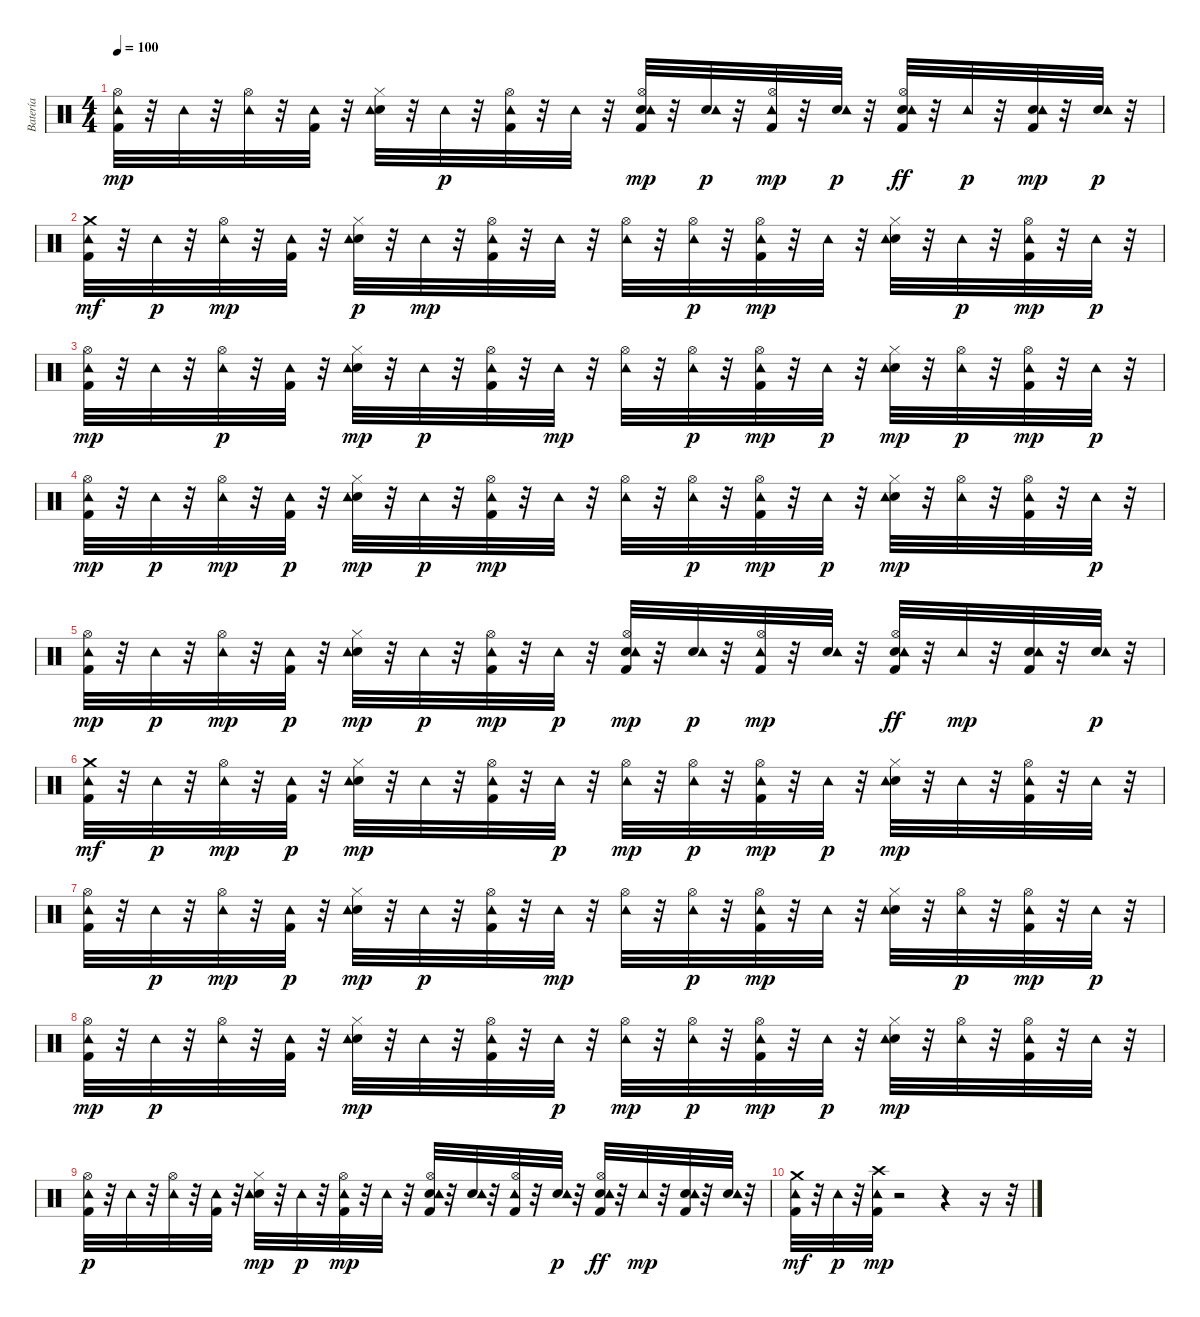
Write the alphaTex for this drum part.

\track ("Batería" "Batería") {instrument percussion}
\staff {score}
\articulation defaults
\ts (4 4)
\tempo 100
\clef neutral
\ks c
("Kick (hit) 2" "Hi-Hat (open)" "Tambourine (hit)").32{dy mp} r.32 "Tambourine (hit)".32 r.32 ("Hi-Hat (open)" "Tambourine (hit)").32 r.32 ("Kick (hit) 2" "Tambourine (hit)").32 r.32 ("Electric Snare (hit)" "Hi-Hat (closed)" "Tambourine (hit)").32 r.32 "Tambourine (hit)".32{dy p} r.32 ("Kick (hit) 2" "Hi-Hat (open)" "Tambourine (hit)").32 r.32 "Tambourine (hit)".32 r.32 ("Kick (hit) 2" "Electric Snare (hit)" "Hi-Hat (open)" "Tambourine (hit)").32{dy mp} r.32 ("Electric Snare (hit)" "Tambourine (hit)").32{dy p} r.32 ("Kick (hit) 2" "Hi-Hat (open)" "Tambourine (hit)").32{dy mp} r.32 ("Electric Snare (hit)" "Tambourine (hit)").32{dy p} r.32 ("Kick (hit) 2" "Electric Snare (hit)" "Hi-Hat (open)" "Tambourine (hit)").32{dy ff} r.32 "Tambourine (hit)".32{dy p} r.32 ("Kick (hit) 2" "Electric Snare (hit)" "Tambourine (hit)").32{dy mp} r.32 ("Electric Snare (hit)" "Tambourine (hit)").32{dy p} r.32 |
("Kick (hit) 2" "Tambourine (hit)" "Crash medium (hit)").32{dy mf} r.32 "Tambourine (hit)".32{dy p} r.32 ("Hi-Hat (open)" "Tambourine (hit)").32{dy mp} r.32 ("Kick (hit) 2" "Tambourine (hit)").32 r.32 ("Electric Snare (hit)" "Hi-Hat (closed)" "Tambourine (hit)").32{dy p} r.32 "Tambourine (hit)".32{dy mp} r.32 ("Kick (hit) 2" "Hi-Hat (open)" "Tambourine (hit)").32 r.32 "Tambourine (hit)".32 r.32 ("Hi-Hat (open)" "Tambourine (hit)").32 r.32 ("Hi-Hat (open)" "Tambourine (hit)").32{dy p} r.32 ("Kick (hit) 2" "Hi-Hat (open)" "Tambourine (hit)").32{dy mp} r.32 "Tambourine (hit)".32 r.32 ("Electric Snare (hit)" "Hi-Hat (closed)" "Tambourine (hit)").32 r.32 "Tambourine (hit)".32{dy p} r.32 ("Kick (hit) 2" "Hi-Hat (open)" "Tambourine (hit)").32{dy mp} r.32 "Tambourine (hit)".32{dy p} r.32 |
("Kick (hit) 2" "Hi-Hat (open)" "Tambourine (hit)").32{dy mp} r.32 "Tambourine (hit)".32 r.32 ("Hi-Hat (open)" "Tambourine (hit)").32{dy p} r.32 ("Kick (hit) 2" "Tambourine (hit)").32 r.32 ("Electric Snare (hit)" "Hi-Hat (closed)" "Tambourine (hit)").32{dy mp} r.32 "Tambourine (hit)".32{dy p} r.32 ("Kick (hit) 2" "Hi-Hat (open)" "Tambourine (hit)").32 r.32 "Tambourine (hit)".32{dy mp} r.32 ("Hi-Hat (open)" "Tambourine (hit)").32 r.32 ("Hi-Hat (open)" "Tambourine (hit)").32{dy p} r.32 ("Kick (hit) 2" "Hi-Hat (open)" "Tambourine (hit)").32{dy mp} r.32 "Tambourine (hit)".32{dy p} r.32 ("Electric Snare (hit)" "Hi-Hat (closed)" "Tambourine (hit)").32{dy mp} r.32 ("Hi-Hat (open)" "Tambourine (hit)").32{dy p} r.32 ("Kick (hit) 2" "Hi-Hat (open)" "Tambourine (hit)").32{dy mp} r.32 "Tambourine (hit)".32{dy p} r.32 |
("Kick (hit) 2" "Hi-Hat (open)" "Tambourine (hit)").32{dy mp} r.32 "Tambourine (hit)".32{dy p} r.32 ("Hi-Hat (open)" "Tambourine (hit)").32{dy mp} r.32 ("Kick (hit) 2" "Tambourine (hit)").32{dy p} r.32 ("Electric Snare (hit)" "Hi-Hat (closed)" "Tambourine (hit)").32{dy mp} r.32 "Tambourine (hit)".32{dy p} r.32 ("Kick (hit) 2" "Hi-Hat (open)" "Tambourine (hit)").32{dy mp} r.32 "Tambourine (hit)".32 r.32 ("Hi-Hat (open)" "Tambourine (hit)").32 r.32 ("Hi-Hat (open)" "Tambourine (hit)").32{dy p} r.32 ("Kick (hit) 2" "Hi-Hat (open)" "Tambourine (hit)").32{dy mp} r.32 "Tambourine (hit)".32{dy p} r.32 ("Electric Snare (hit)" "Hi-Hat (closed)" "Tambourine (hit)").32{dy mp} r.32 ("Hi-Hat (open)" "Tambourine (hit)").32 r.32 ("Kick (hit) 2" "Hi-Hat (open)" "Tambourine (hit)").32 r.32 "Tambourine (hit)".32{dy p} r.32 |
("Kick (hit) 2" "Hi-Hat (open)" "Tambourine (hit)").32{dy mp} r.32 "Tambourine (hit)".32{dy p} r.32 ("Hi-Hat (open)" "Tambourine (hit)").32{dy mp} r.32 ("Kick (hit) 2" "Tambourine (hit)").32{dy p} r.32 ("Electric Snare (hit)" "Hi-Hat (closed)" "Tambourine (hit)").32{dy mp} r.32 "Tambourine (hit)".32{dy p} r.32 ("Kick (hit) 2" "Hi-Hat (open)" "Tambourine (hit)").32{dy mp} r.32 "Tambourine (hit)".32{dy p} r.32 ("Kick (hit) 2" "Electric Snare (hit)" "Hi-Hat (open)" "Tambourine (hit)").32{dy mp} r.32 ("Electric Snare (hit)" "Tambourine (hit)").32{dy p} r.32 ("Kick (hit) 2" "Hi-Hat (open)" "Tambourine (hit)").32{dy mp} r.32 ("Electric Snare (hit)" "Tambourine (hit)").32 r.32 ("Kick (hit) 2" "Electric Snare (hit)" "Hi-Hat (open)" "Tambourine (hit)").32{dy ff} r.32 "Tambourine (hit)".32{dy mp} r.32 ("Kick (hit) 2" "Electric Snare (hit)" "Tambourine (hit)").32 r.32 ("Electric Snare (hit)" "Tambourine (hit)").32{dy p} r.32 |
("Kick (hit) 2" "Tambourine (hit)" "Crash medium (hit)").32{dy mf} r.32 "Tambourine (hit)".32{dy p} r.32 ("Hi-Hat (open)" "Tambourine (hit)").32{dy mp} r.32 ("Kick (hit) 2" "Tambourine (hit)").32{dy p} r.32 ("Electric Snare (hit)" "Hi-Hat (closed)" "Tambourine (hit)").32{dy mp} r.32 "Tambourine (hit)".32 r.32 ("Kick (hit) 2" "Hi-Hat (open)" "Tambourine (hit)").32 r.32 "Tambourine (hit)".32{dy p} r.32 ("Hi-Hat (open)" "Tambourine (hit)").32{dy mp} r.32 ("Hi-Hat (open)" "Tambourine (hit)").32{dy p} r.32 ("Kick (hit) 2" "Hi-Hat (open)" "Tambourine (hit)").32{dy mp} r.32 "Tambourine (hit)".32{dy p} r.32 ("Electric Snare (hit)" "Hi-Hat (closed)" "Tambourine (hit)").32{dy mp} r.32 "Tambourine (hit)".32 r.32 ("Kick (hit) 2" "Hi-Hat (open)" "Tambourine (hit)").32 r.32 "Tambourine (hit)".32 r.32 |
("Kick (hit) 2" "Hi-Hat (open)" "Tambourine (hit)").32 r.32 "Tambourine (hit)".32{dy p} r.32 ("Hi-Hat (open)" "Tambourine (hit)").32{dy mp} r.32 ("Kick (hit) 2" "Tambourine (hit)").32{dy p} r.32 ("Electric Snare (hit)" "Hi-Hat (closed)" "Tambourine (hit)").32{dy mp} r.32 "Tambourine (hit)".32{dy p} r.32 ("Kick (hit) 2" "Hi-Hat (open)" "Tambourine (hit)").32 r.32 "Tambourine (hit)".32{dy mp} r.32 ("Hi-Hat (open)" "Tambourine (hit)").32 r.32 ("Hi-Hat (open)" "Tambourine (hit)").32{dy p} r.32 ("Kick (hit) 2" "Hi-Hat (open)" "Tambourine (hit)").32{dy mp} r.32 "Tambourine (hit)".32 r.32 ("Electric Snare (hit)" "Hi-Hat (closed)" "Tambourine (hit)").32 r.32 ("Hi-Hat (open)" "Tambourine (hit)").32{dy p} r.32 ("Kick (hit) 2" "Hi-Hat (open)" "Tambourine (hit)").32{dy mp} r.32 "Tambourine (hit)".32{dy p} r.32 |
("Kick (hit) 2" "Hi-Hat (open)" "Tambourine (hit)").32{dy mp} r.32 "Tambourine (hit)".32{dy p} r.32 ("Hi-Hat (open)" "Tambourine (hit)").32 r.32 ("Kick (hit) 2" "Tambourine (hit)").32 r.32 ("Electric Snare (hit)" "Hi-Hat (closed)" "Tambourine (hit)").32{dy mp} r.32 "Tambourine (hit)".32 r.32 ("Kick (hit) 2" "Hi-Hat (open)" "Tambourine (hit)").32 r.32 "Tambourine (hit)".32{dy p} r.32 ("Hi-Hat (open)" "Tambourine (hit)").32{dy mp} r.32 ("Hi-Hat (open)" "Tambourine (hit)").32{dy p} r.32 ("Kick (hit) 2" "Hi-Hat (open)" "Tambourine (hit)").32{dy mp} r.32 "Tambourine (hit)".32{dy p} r.32 ("Electric Snare (hit)" "Hi-Hat (closed)" "Tambourine (hit)").32{dy mp} r.32 ("Hi-Hat (open)" "Tambourine (hit)").32 r.32 ("Kick (hit) 2" "Hi-Hat (open)" "Tambourine (hit)").32 r.32 "Tambourine (hit)".32 r.32 |
("Kick (hit) 2" "Hi-Hat (open)" "Tambourine (hit)").32{dy p} r.32 "Tambourine (hit)".32 r.32 ("Hi-Hat (open)" "Tambourine (hit)").32 r.32 ("Kick (hit) 2" "Tambourine (hit)").32 r.32 ("Electric Snare (hit)" "Hi-Hat (closed)" "Tambourine (hit)").32{dy mp} r.32 "Tambourine (hit)".32{dy p} r.32 ("Kick (hit) 2" "Hi-Hat (open)" "Tambourine (hit)").32{dy mp} r.32 "Tambourine (hit)".32 r.32 ("Kick (hit) 2" "Electric Snare (hit)" "Hi-Hat (open)" "Tambourine (hit)").32 r.32 ("Electric Snare (hit)" "Tambourine (hit)").32 r.32 ("Kick (hit) 2" "Hi-Hat (open)" "Tambourine (hit)").32 r.32 ("Electric Snare (hit)" "Tambourine (hit)").32{dy p} r.32 ("Kick (hit) 2" "Electric Snare (hit)" "Hi-Hat (open)" "Tambourine (hit)").32{dy ff} r.32 "Tambourine (hit)".32{dy mp} r.32 ("Kick (hit) 2" "Electric Snare (hit)" "Tambourine (hit)").32 r.32 ("Electric Snare (hit)" "Tambourine (hit)").32 r.32 |
("Kick (hit) 2" "Tambourine (hit)" "Crash medium (hit)").32{dy mf} r.32 "Tambourine (hit)".32{dy p} r.32 ("Kick (hit) 2" "Crash high (hit)" "Tambourine (hit)").32{dy mp} r.2 r.4 r.16 r.32
